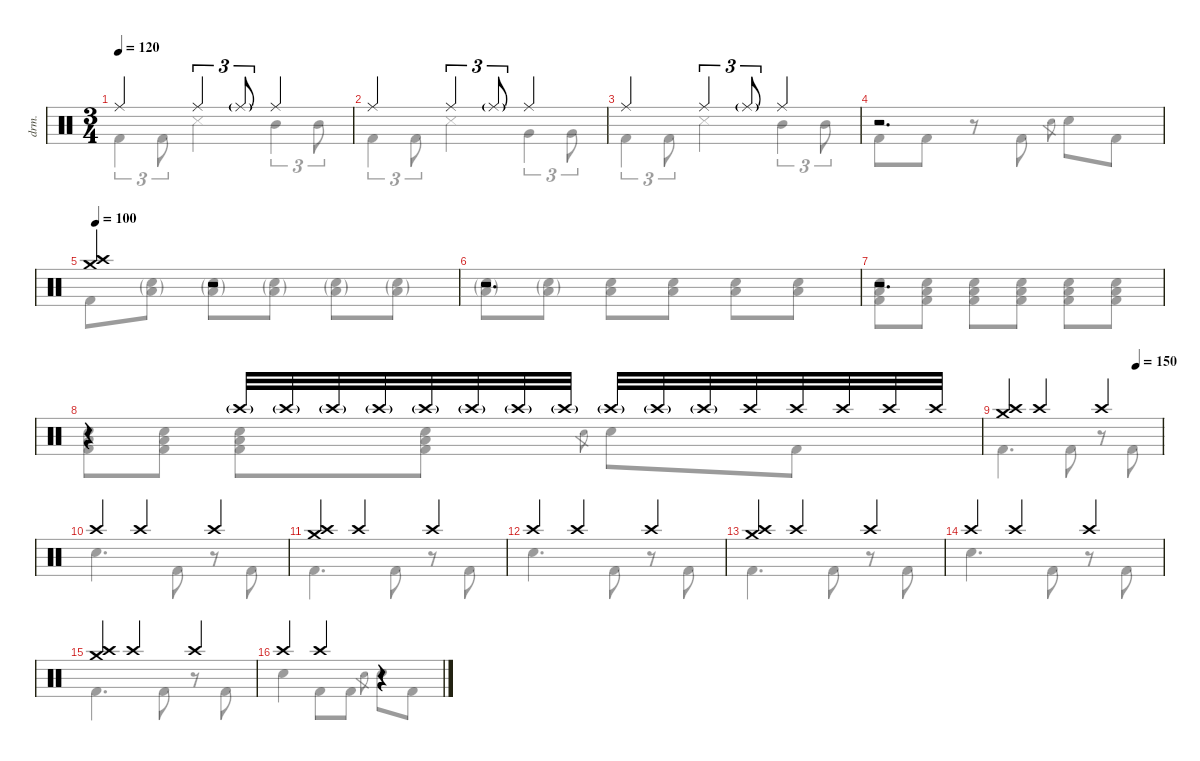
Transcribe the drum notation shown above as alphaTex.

\defaultSystemsLayout 4
\hideDynamics
\bracketExtendMode nobrackets
\otherSystemsTrackNameOrientation horizontal
\track ("B. Richardson Drums" "drm.") {instrument percussion}
\staff {score}
\articulation defaults
\voice
\ts (3 4)
\tempo 120
\clef neutral
\ks c "Ride (middle)".4{dy mf beam Up} "Ride (middle)".4{tu (3 2) beam Up} "Ride (middle)"{g}.8{tu (3 2) beam Up} "Ride (middle)".4{beam Up}
|
"Ride (middle)".4{beam Up} "Ride (middle)".4{tu (3 2) beam Up} "Ride (middle)"{g}.8{tu (3 2) beam Up} "Ride (middle)".4{beam Up} |
"Ride (middle)".4{beam Up} "Ride (middle)".4{tu (3 2) beam Up} "Ride (middle)"{g}.8{tu (3 2) beam Up} "Ride (middle)".4{beam Up} |
r.2{d beam Up} |
\tempo 100
("Crash high (hit)" "Crash medium (hit)").4{dy f beam Up} r.2{beam Up} |
r.2{d beam Up} |
r.2{d beam Up} |
r.4{beam Up} "Crash high (hit)"{g}.32{dy mp beam Up} "Crash high (hit)"{g}.32{beam Up} "Crash high (hit)"{g}.32{beam Up} "Crash high (hit)"{g}.32{dy mf beam Up} "Crash high (hit)"{g}.32{beam Up} "Crash high (hit)"{g}.32{beam Up} "Crash high (hit)"{g}.32{beam Up} "Crash high (hit)"{g}.32{beam Up} "Crash high (hit)"{g}.32{beam Up} "Crash high (hit)"{g}.32{beam Up} "Crash high (hit)"{g}.32{beam Up} "Crash high (hit)".32{beam Up} "Crash high (hit)".32{beam Up} "Crash high (hit)".32{beam Up} "Crash high (hit)".32{beam Up} "Crash high (hit)".32{beam Up} |
\tempo (150 0.833333)
("Crash high (hit)" "Crash medium (hit)").4{dy f beam Up} "Crash high (hit)".4{dy mf beam Up} "Crash high (hit)".4{beam Up} |
"Crash high (hit)".4{beam Up} "Crash high (hit)".4{beam Up} "Crash high (hit)".4{beam Up} |
("Crash high (hit)" "Crash medium (hit)").4{beam Up} "Crash high (hit)".4{beam Up} "Crash high (hit)".4{beam Up} |
"Crash high (hit)".4{beam Up} "Crash high (hit)".4{beam Up} "Crash high (hit)".4{beam Up} |
("Crash high (hit)" "Crash medium (hit)").4{beam Up} "Crash high (hit)".4{beam Up} "Crash high (hit)".4{beam Up} |
"Crash high (hit)".4{beam Up} "Crash high (hit)".4{beam Up} "Crash high (hit)".4{beam Up} |
("Crash high (hit)" "Crash medium (hit)").4{beam Up} "Crash high (hit)".4{beam Up} "Crash high (hit)".4{beam Up} |
"Crash high (hit)".4{beam Up} "Crash high (hit)".4{beam Up} r.4{beam Up}
\voice
\clef neutral
\ottava regular
\simile none
\ks c "Kick (hit) 2".4{tu (3 2) dy fff beam Down} "Kick (hit) 2".8{tu (3 2) beam Down} "Snare (side stick) 3".4{dy f beam Down} "Mid Tom (hit)".4{tu (3 2) dy fff beam Down} "Mid Tom (hit)".8{tu (3 2) beam Down}
|
"Kick (hit) 2".4{tu (3 2) beam Down} "Kick (hit) 2".8{tu (3 2) beam Down} "Snare (side stick) 3".4{dy f beam Down} "Very Low Tom (hit)".4{tu (3 2) dy fff beam Down} "Very Low Tom (hit)".8{tu (3 2) beam Down} |
"Kick (hit) 2".4{tu (3 2) beam Down} "Kick (hit) 2".8{tu (3 2) beam Down} "Snare (side stick) 3".4{dy f beam Down} "Mid Tom (hit)".4{tu (3 2) dy fff beam Down} "Mid Tom (hit)".8{tu (3 2) beam Down} |
"Kick (hit) 2".8{beam Down} "Kick (hit) 2".8{beam Down} r.8{beam Down} "Kick (hit) 2".8{beam Down} "Electric Snare (hit)".8{gr dy ff beam Down} "Snare (hit) 2".8{dy fff beam Down} "Kick (hit) 2".8{beam Down} |
"Kick (hit) 2".8{beam Down} ("Snare (hit) 2"{g} "Low Tom (hit)"{g}).8{dy mp beam Down} ("Snare (hit) 2"{g} "Low Tom (hit)"{g}).8{beam Down} ("Snare (hit) 2"{g} "Low Tom (hit)"{g}).8{beam Down} ("Snare (hit) 2"{g} "Low Tom (hit)"{g}).8{dy mf beam Down} ("Snare (hit) 2"{g} "Low Tom (hit)"{g}).8{beam Down} |
("Snare (hit) 2"{g} "Low Tom (hit)"{g}).8{beam Down} ("Snare (hit) 2"{g} "Low Tom (hit)"{g}).8{beam Down} ("Snare (hit) 2" "Low Tom (hit)").8{beam Down} ("Snare (hit) 2" "Low Tom (hit)").8{beam Down} ("Snare (hit) 2" "Low Tom (hit)").8{beam Down} ("Snare (hit) 2" "Low Tom (hit)").8{beam Down} |
("Snare (hit) 2" "Low Tom (hit)" "Kick (hit) 2").8{beam Down} ("Snare (hit) 2" "Low Tom (hit)" "Kick (hit) 2").8{beam Down} ("Snare (hit) 2" "Low Tom (hit)" "Kick (hit) 2").8{beam Down} ("Snare (hit) 2" "Low Tom (hit)" "Kick (hit) 2").8{dy f beam Down} ("Snare (hit) 2" "Low Tom (hit)" "Kick (hit) 2").8{beam Down} ("Snare (hit) 2" "Low Tom (hit)" "Kick (hit) 2").8{beam Down} |
("Snare (hit) 2" "Low Tom (hit)" "Kick (hit) 2").8{dy ff beam Down} ("Snare (hit) 2" "Low Tom (hit)" "Kick (hit) 2").8{beam Down} ("Snare (hit) 2" "Low Tom (hit)" "Kick (hit) 2").8{beam Down} ("Snare (hit) 2" "Low Tom (hit)" "Kick (hit) 2").8{dy fff beam Down} "Electric Snare (hit)".8{gr dy ff beam Down} "Snare (hit) 2".8{dy fff beam Down} "Kick (hit) 2".8{beam Down} |
"Kick (hit) 2".4{d beam Down} "Kick (hit) 2".8{beam Down} r.8{beam Down} "Kick (hit) 2".8{beam Down} |
"Snare (hit) 2".4{d beam Down} "Kick (hit) 2".8{beam Down} r.8{beam Down} "Kick (hit) 2".8{beam Down} |
"Kick (hit) 2".4{d beam Down} "Kick (hit) 2".8{beam Down} r.8{beam Down} "Kick (hit) 2".8{beam Down} |
"Snare (hit) 2".4{d beam Down} "Kick (hit) 2".8{beam Down} r.8{beam Down} "Kick (hit) 2".8{beam Down} |
"Kick (hit) 2".4{d beam Down} "Kick (hit) 2".8{beam Down} r.8{beam Down} "Kick (hit) 2".8{beam Down} |
"Snare (hit) 2".4{d beam Down} "Kick (hit) 2".8{beam Down} r.8{beam Down} "Kick (hit) 2".8{beam Down} |
"Kick (hit) 2".4{d beam Down} "Kick (hit) 2".8{beam Down} r.8{beam Down} "Kick (hit) 2".8{beam Down} |
"Snare (hit) 2".4{beam Down} "Kick (hit) 2".8{beam Down} "Kick (hit) 2".8{beam Down} "Electric Snare (hit)".8{gr dy ff beam Down} "Snare (hit) 2".8{dy fff beam Down} "Kick (hit) 2".8{beam Down}
